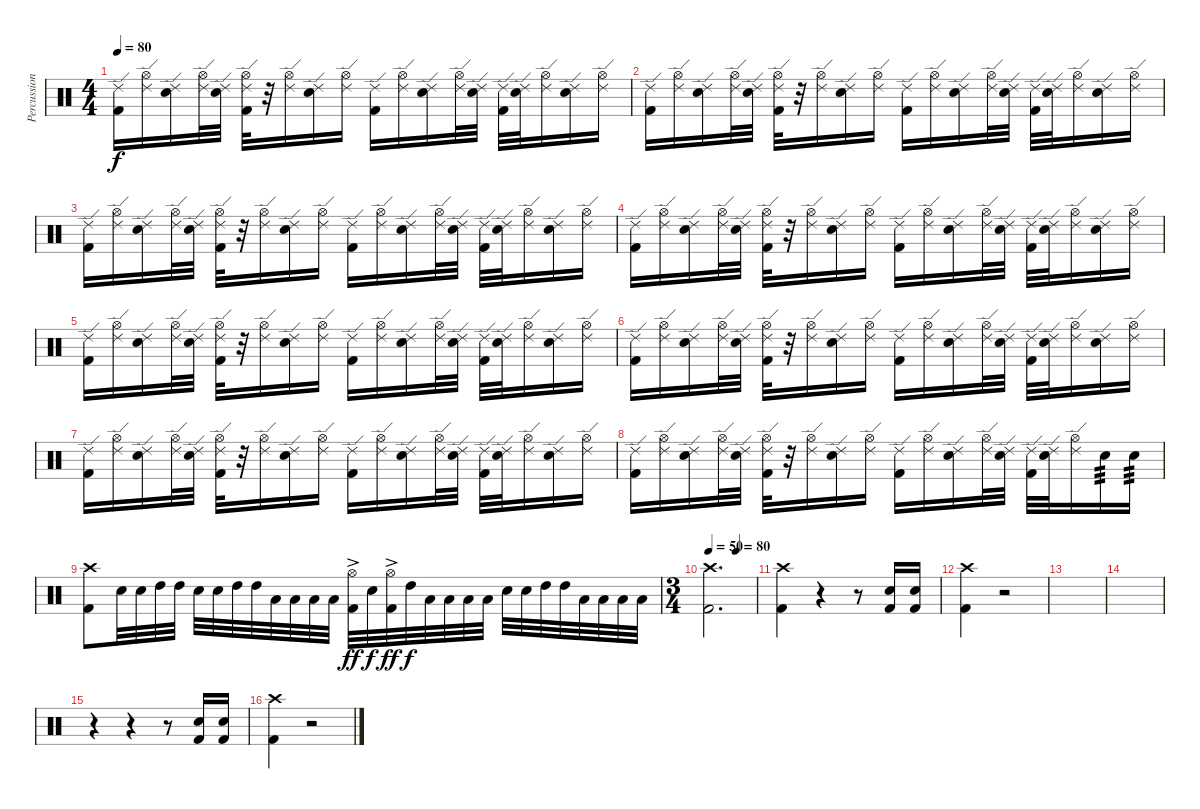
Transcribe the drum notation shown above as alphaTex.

\track ("Percussion" "Percussion") {instrument percussion}
\staff {score}
\articulation defaults
\ts (4 4)
\tempo 80
\clef neutral
\ks c
("Ride (edge) 2" "Kick (hit) 2").16{dy f} ("Ride (edge) 2" "Hi-Hat (open)").16 ("Ride (edge) 2" "Electric Snare (hit)").16 ("Ride (edge) 2" "Hi-Hat (open)").32 ("Ride (edge) 2" "Electric Snare (hit)").32 ("Ride (edge) 2" "Hi-Hat (open)" "Kick (hit) 2").32 r.32 ("Ride (edge) 2" "Hi-Hat (open)").16 ("Ride (edge) 2" "Electric Snare (hit)").16 ("Ride (edge) 2" "Hi-Hat (open)").16 ("Ride (edge) 2" "Kick (hit) 2").16 ("Ride (edge) 2" "Hi-Hat (open)").16 ("Ride (edge) 2" "Electric Snare (hit)").16 ("Ride (edge) 2" "Hi-Hat (open)").32 ("Ride (edge) 2" "Electric Snare (hit)").32 ("Ride (edge) 2" "Kick (hit) 2").32 ("Ride (edge) 2" "Electric Snare (hit)").32 ("Ride (edge) 2" "Hi-Hat (open)").16 ("Ride (edge) 2" "Electric Snare (hit)").16 ("Ride (edge) 2" "Hi-Hat (open)").16 |
("Ride (edge) 2" "Kick (hit) 2").16 ("Ride (edge) 2" "Hi-Hat (open)").16 ("Ride (edge) 2" "Electric Snare (hit)").16 ("Ride (edge) 2" "Hi-Hat (open)").32 ("Ride (edge) 2" "Electric Snare (hit)").32 ("Ride (edge) 2" "Hi-Hat (open)" "Kick (hit) 2").32 r.32 ("Ride (edge) 2" "Hi-Hat (open)").16 ("Ride (edge) 2" "Electric Snare (hit)").16 ("Ride (edge) 2" "Hi-Hat (open)").16 ("Ride (edge) 2" "Kick (hit) 2").16 ("Ride (edge) 2" "Hi-Hat (open)").16 ("Ride (edge) 2" "Electric Snare (hit)").16 ("Ride (edge) 2" "Hi-Hat (open)").32 ("Ride (edge) 2" "Electric Snare (hit)").32 ("Ride (edge) 2" "Kick (hit) 2").32 ("Ride (edge) 2" "Electric Snare (hit)").32 ("Ride (edge) 2" "Hi-Hat (open)").16 ("Ride (edge) 2" "Electric Snare (hit)").16 ("Ride (edge) 2" "Hi-Hat (open)").16 |
("Ride (edge) 2" "Kick (hit) 2").16 ("Ride (edge) 2" "Hi-Hat (open)").16 ("Ride (edge) 2" "Electric Snare (hit)").16 ("Ride (edge) 2" "Hi-Hat (open)").32 ("Ride (edge) 2" "Electric Snare (hit)").32 ("Ride (edge) 2" "Hi-Hat (open)" "Kick (hit) 2").32 r.32 ("Ride (edge) 2" "Hi-Hat (open)").16 ("Ride (edge) 2" "Electric Snare (hit)").16 ("Ride (edge) 2" "Hi-Hat (open)").16 ("Ride (edge) 2" "Kick (hit) 2").16 ("Ride (edge) 2" "Hi-Hat (open)").16 ("Ride (edge) 2" "Electric Snare (hit)").16 ("Ride (edge) 2" "Hi-Hat (open)").32 ("Ride (edge) 2" "Electric Snare (hit)").32 ("Ride (edge) 2" "Kick (hit) 2").32 ("Ride (edge) 2" "Electric Snare (hit)").32 ("Ride (edge) 2" "Hi-Hat (open)").16 ("Ride (edge) 2" "Electric Snare (hit)").16 ("Ride (edge) 2" "Hi-Hat (open)").16 |
("Ride (edge) 2" "Kick (hit) 2").16 ("Ride (edge) 2" "Hi-Hat (open)").16 ("Ride (edge) 2" "Electric Snare (hit)").16 ("Ride (edge) 2" "Hi-Hat (open)").32 ("Ride (edge) 2" "Electric Snare (hit)").32 ("Ride (edge) 2" "Hi-Hat (open)" "Kick (hit) 2").32 r.32 ("Ride (edge) 2" "Hi-Hat (open)").16 ("Ride (edge) 2" "Electric Snare (hit)").16 ("Ride (edge) 2" "Hi-Hat (open)").16 ("Ride (edge) 2" "Kick (hit) 2").16 ("Ride (edge) 2" "Hi-Hat (open)").16 ("Ride (edge) 2" "Electric Snare (hit)").16 ("Ride (edge) 2" "Hi-Hat (open)").32 ("Ride (edge) 2" "Electric Snare (hit)").32 ("Ride (edge) 2" "Kick (hit) 2").32 ("Ride (edge) 2" "Electric Snare (hit)").32 ("Ride (edge) 2" "Hi-Hat (open)").16 ("Ride (edge) 2" "Electric Snare (hit)").16 ("Ride (edge) 2" "Hi-Hat (open)").16 |
("Ride (edge) 2" "Kick (hit) 2").16 ("Ride (edge) 2" "Hi-Hat (open)").16 ("Ride (edge) 2" "Electric Snare (hit)").16 ("Ride (edge) 2" "Hi-Hat (open)").32 ("Ride (edge) 2" "Electric Snare (hit)").32 ("Ride (edge) 2" "Hi-Hat (open)" "Kick (hit) 2").32 r.32 ("Ride (edge) 2" "Hi-Hat (open)").16 ("Ride (edge) 2" "Electric Snare (hit)").16 ("Ride (edge) 2" "Hi-Hat (open)").16 ("Ride (edge) 2" "Kick (hit) 2").16 ("Ride (edge) 2" "Hi-Hat (open)").16 ("Ride (edge) 2" "Electric Snare (hit)").16 ("Ride (edge) 2" "Hi-Hat (open)").32 ("Ride (edge) 2" "Electric Snare (hit)").32 ("Ride (edge) 2" "Kick (hit) 2").32 ("Ride (edge) 2" "Electric Snare (hit)").32 ("Ride (edge) 2" "Hi-Hat (open)").16 ("Ride (edge) 2" "Electric Snare (hit)").16 ("Ride (edge) 2" "Hi-Hat (open)").16 |
("Ride (edge) 2" "Kick (hit) 2").16 ("Ride (edge) 2" "Hi-Hat (open)").16 ("Ride (edge) 2" "Electric Snare (hit)").16 ("Ride (edge) 2" "Hi-Hat (open)").32 ("Ride (edge) 2" "Electric Snare (hit)").32 ("Ride (edge) 2" "Hi-Hat (open)" "Kick (hit) 2").32 r.32 ("Ride (edge) 2" "Hi-Hat (open)").16 ("Ride (edge) 2" "Electric Snare (hit)").16 ("Ride (edge) 2" "Hi-Hat (open)").16 ("Ride (edge) 2" "Kick (hit) 2").16 ("Ride (edge) 2" "Hi-Hat (open)").16 ("Ride (edge) 2" "Electric Snare (hit)").16 ("Ride (edge) 2" "Hi-Hat (open)").32 ("Ride (edge) 2" "Electric Snare (hit)").32 ("Ride (edge) 2" "Kick (hit) 2").32 ("Ride (edge) 2" "Electric Snare (hit)").32 ("Ride (edge) 2" "Hi-Hat (open)").16 ("Ride (edge) 2" "Electric Snare (hit)").16 ("Ride (edge) 2" "Hi-Hat (open)").16 |
("Ride (edge) 2" "Kick (hit) 2").16 ("Ride (edge) 2" "Hi-Hat (open)").16 ("Ride (edge) 2" "Electric Snare (hit)").16 ("Ride (edge) 2" "Hi-Hat (open)").32 ("Ride (edge) 2" "Electric Snare (hit)").32 ("Ride (edge) 2" "Hi-Hat (open)" "Kick (hit) 2").32 r.32 ("Ride (edge) 2" "Hi-Hat (open)").16 ("Ride (edge) 2" "Electric Snare (hit)").16 ("Ride (edge) 2" "Hi-Hat (open)").16 ("Ride (edge) 2" "Kick (hit) 2").16 ("Ride (edge) 2" "Hi-Hat (open)").16 ("Ride (edge) 2" "Electric Snare (hit)").16 ("Ride (edge) 2" "Hi-Hat (open)").32 ("Ride (edge) 2" "Electric Snare (hit)").32 ("Ride (edge) 2" "Kick (hit) 2").32 ("Ride (edge) 2" "Electric Snare (hit)").32 ("Ride (edge) 2" "Hi-Hat (open)").16 ("Ride (edge) 2" "Electric Snare (hit)").16 ("Ride (edge) 2" "Hi-Hat (open)").16 |
("Ride (edge) 2" "Kick (hit) 2").16 ("Ride (edge) 2" "Hi-Hat (open)").16 ("Ride (edge) 2" "Electric Snare (hit)").16 ("Ride (edge) 2" "Hi-Hat (open)").32 ("Ride (edge) 2" "Electric Snare (hit)").32 ("Ride (edge) 2" "Hi-Hat (open)" "Kick (hit) 2").32 r.32 ("Ride (edge) 2" "Hi-Hat (open)").16 ("Ride (edge) 2" "Electric Snare (hit)").16 ("Ride (edge) 2" "Hi-Hat (open)").16 ("Ride (edge) 2" "Kick (hit) 2").16 ("Ride (edge) 2" "Hi-Hat (open)").16 ("Ride (edge) 2" "Electric Snare (hit)").16 ("Ride (edge) 2" "Hi-Hat (open)").32 ("Ride (edge) 2" "Electric Snare (hit)").32 ("Ride (edge) 2" "Kick (hit) 2").32 ("Ride (edge) 2" "Electric Snare (hit)").32 ("Ride (edge) 2" "Hi-Hat (open)").16 "Electric Snare (hit)".16{tp 3} "Electric Snare (hit)".16{tp 3} |
("Crash high (hit)" "Kick (hit) 2").8 "Electric Snare (hit)".32 "Electric Snare (hit)".32 "High Tom (hit)".32 "High Tom (hit)".32 "Electric Snare (hit)".32 "Electric Snare (hit)".32 "High Tom (hit)".32 "High Tom (hit)".32 "Low Tom (hit)".32 "Low Tom (hit)".32 "Low Floor Tom (hit)".32 "Low Floor Tom (hit)".32 ("Hi-Hat (open)"{ac} "Kick (hit) 2").32{dy ff} "Electric Snare (hit)".32{dy f} ("Hi-Hat (open)"{ac} "Kick (hit) 2").32{dy ff} "High Tom (hit)".32{dy f} "Low Tom (hit)".32 "Low Tom (hit)".32 "Low Floor Tom (hit)".32 "Low Floor Tom (hit)".32 "Electric Snare (hit)".32 "Electric Snare (hit)".32 "High Tom (hit)".32 "High Tom (hit)".32 "Low Floor Tom (hit)".32 "Low Floor Tom (hit)".32 "Low Tom (hit)".32 "Low Tom (hit)".32 |
\ts (3 4)
\tempo 50
\tempo (80 0.5833333333333334)
("Crash high (hit)" "Kick (hit) 2").2{d} |
("Crash high (hit)" "Kick (hit) 2").4 r.4 r.8 ("Electric Snare (hit)" "Kick (hit) 2").16 ("Electric Snare (hit)" "Kick (hit) 2").16 |
("Crash high (hit)" "Kick (hit) 2").4 r.2 |
|
|
r.4 r.4 r.8 ("Electric Snare (hit)" "Kick (hit) 2").16 ("Electric Snare (hit)" "Kick (hit) 2").16 |
("Crash high (hit)" "Kick (hit) 2").4 r.2
